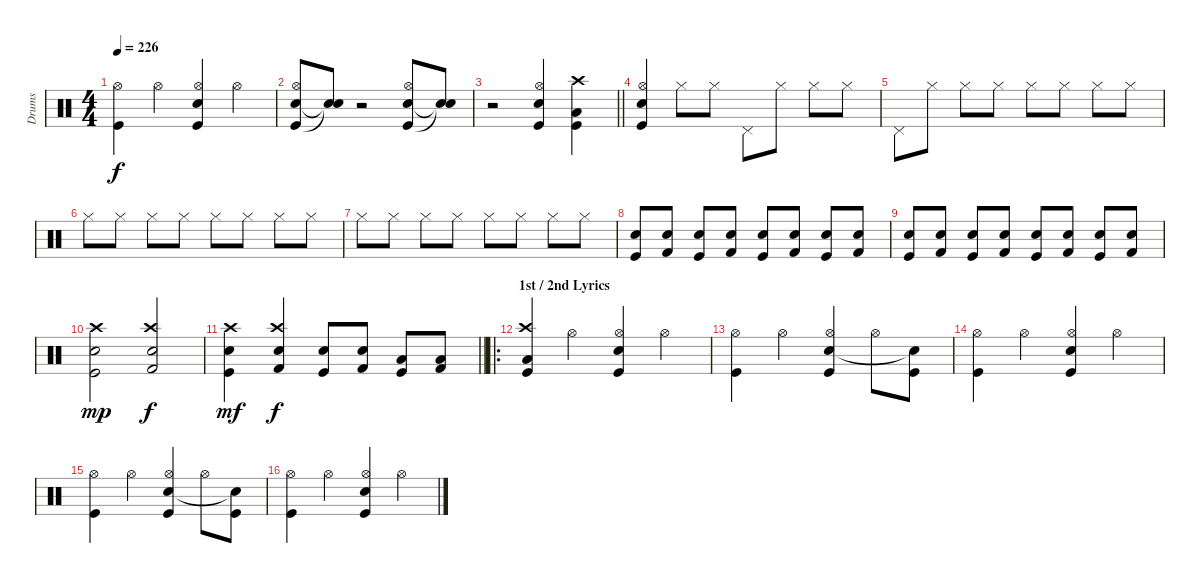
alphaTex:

\track ("Drums" "Drums") {instrument percussion}
\staff {score}
\articulation defaults
\ts (4 4)
\tempo 226
\clef neutral
\ks c
("Kick (hit)" "Hi-Hat (open)").4{dy f} "Hi-Hat (open)".4 ("Kick (hit)" "Snare (hit) 2" "Hi-Hat (open)").4 "Hi-Hat (open)".4 |
("Kick (hit)" "Snare (hit) 2" "Hi-Hat (open)").8 ("Snare (hit)"{t} "Snare (hit)"{t}).8 r.2 ("Kick (hit)" "Snare (hit) 2" "Hi-Hat (open)").8 ("Snare (hit)"{t} "Snare (hit)"{t}).8 |
\barLineRight lightlight
r.2 ("Kick (hit)" "Snare (hit) 2" "Hi-Hat (open)").4 ("Kick (hit)" "Low Floor Tom (hit)" "Crash high (hit)").4 |
("Kick (hit)" "Snare (hit) 2" "Hi-Hat (open)").4 "Hi-Hat (closed)".8 "Hi-Hat (closed)".8 "Pedal Hi-Hat (hit)".8 "Hi-Hat (closed)".8 "Hi-Hat (closed)".8 "Hi-Hat (closed)".8 |
"Pedal Hi-Hat (hit)".8 "Hi-Hat (closed)".8 "Hi-Hat (closed)".8 "Hi-Hat (closed)".8 "Hi-Hat (closed)".8 "Hi-Hat (closed)".8 "Hi-Hat (closed)".8 "Hi-Hat (closed)".8 |
"Hi-Hat (closed)".8 "Hi-Hat (closed)".8 "Hi-Hat (closed)".8 "Hi-Hat (closed)".8 "Hi-Hat (closed)".8 "Hi-Hat (closed)".8 "Hi-Hat (closed)".8 "Hi-Hat (closed)".8 |
"Hi-Hat (closed)".8 "Hi-Hat (closed)".8 "Hi-Hat (closed)".8 "Hi-Hat (closed)".8 "Hi-Hat (closed)".8 "Hi-Hat (closed)".8 "Hi-Hat (closed)".8 "Hi-Hat (closed)".8 |
("Kick (hit)" "Electric Snare (hit)").8 ("Kick (hit) 2" "Electric Snare (hit)").8 ("Kick (hit)" "Electric Snare (hit)").8 ("Kick (hit) 2" "Electric Snare (hit)").8 ("Kick (hit)" "Snare (hit) 2").8 ("Kick (hit) 2" "Snare (hit) 2").8 ("Kick (hit)" "Snare (hit) 2").8 ("Kick (hit) 2" "Snare (hit) 2").8 |
("Kick (hit)" "Snare (hit) 2").8 ("Kick (hit) 2" "Snare (hit) 2").8 ("Kick (hit)" "Snare (hit) 2").8 ("Kick (hit) 2" "Snare (hit) 2").8 ("Kick (hit)" "Snare (hit) 2").8 ("Kick (hit) 2" "Snare (hit) 2").8 ("Kick (hit)" "Snare (hit) 2").8 ("Kick (hit) 2" "Snare (hit) 2").8 |
("Kick (hit)" "Snare (hit) 2" "Crash high (hit)").2{dy mp} ("Kick (hit) 2" "Snare (hit) 2" "Crash high (hit)").2{dy f} |
\barLineRight lightlight
("Kick (hit)" "Snare (hit) 2" "Crash high (hit)").4{dy mf} ("Kick (hit) 2" "Snare (hit) 2" "Crash high (hit)").4{dy f} ("Kick (hit)" "Snare (hit) 2").8 ("Kick (hit) 2" "Electric Snare (hit)").8 ("Kick (hit)" "Low Floor Tom (hit)").8 ("Kick (hit) 2" "Low Tom (hit)").8 |
\ro
\section ("" "1st / 2nd Lyrics")
("Kick (hit)" "Low Tom (hit)" "Crash high (hit)").4 "Hi-Hat (open)".4 ("Kick (hit)" "Snare (hit) 2" "Hi-Hat (open)").4 "Hi-Hat (open)".4 |
("Kick (hit)" "Hi-Hat (open)").4 "Hi-Hat (open)".4 ("Kick (hit)" "Snare (hit) 2" "Hi-Hat (open)").4 "Hi-Hat (open)".8 ("Kick (hit)" "Snare (hit)"{t}).8 |
("Kick (hit)" "Hi-Hat (open)").4 "Hi-Hat (open)".4 ("Kick (hit)" "Snare (hit) 2" "Hi-Hat (open)").4 "Hi-Hat (open)".4 |
("Kick (hit)" "Hi-Hat (open)").4 "Hi-Hat (open)".4 ("Kick (hit)" "Snare (hit) 2" "Hi-Hat (open)").4 "Hi-Hat (open)".8 ("Kick (hit)" "Snare (hit)"{t}).8 |
("Kick (hit)" "Hi-Hat (open)").4 "Hi-Hat (open)".4 ("Kick (hit)" "Snare (hit) 2" "Hi-Hat (open)").4 "Hi-Hat (open)".4
